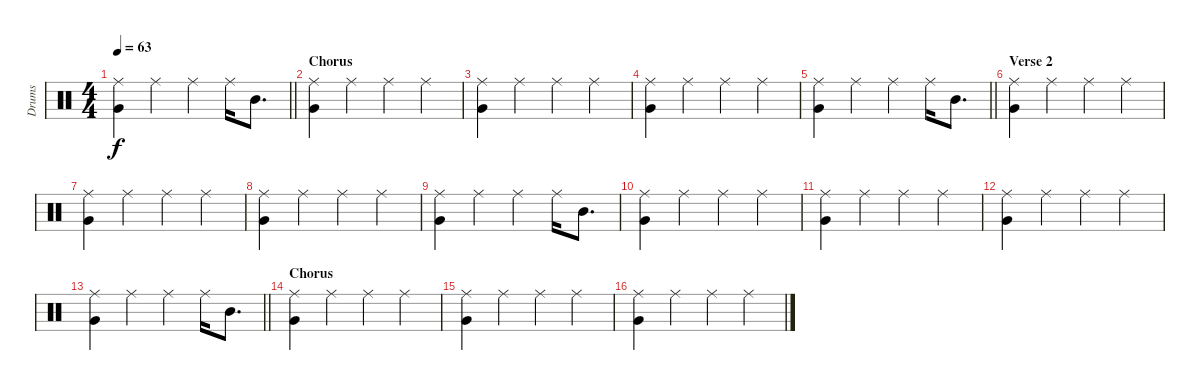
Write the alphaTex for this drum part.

\track ("Drums" "Drums") {instrument percussion}
\staff {score}
\articulation defaults
\ts (4 4)
\tempo 63
\clef neutral
\barLineRight lightlight
\ks c
("Ride (middle)" "Very Low Tom (hit)").4{dy f} "Ride (middle)".4 "Ride (middle)".4 "Ride (middle)".16 "Mid Tom (hit)".8{d} |
\section ("" "Chorus")
("Ride (middle)" "Very Low Tom (hit)").4 "Ride (middle)".4 "Ride (middle)".4 "Ride (middle)".4 |
("Ride (middle)" "Very Low Tom (hit)").4 "Ride (middle)".4 "Ride (middle)".4 "Ride (middle)".4 |
("Ride (middle)" "Very Low Tom (hit)").4 "Ride (middle)".4 "Ride (middle)".4 "Ride (middle)".4 |
\barLineRight lightlight
("Ride (middle)" "Very Low Tom (hit)").4 "Ride (middle)".4 "Ride (middle)".4 "Ride (middle)".16 "Mid Tom (hit)".8{d} |
\section ("" "Verse 2")
("Ride (middle)" "Very Low Tom (hit)").4 "Ride (middle)".4 "Ride (middle)".4 "Ride (middle)".4 |
("Ride (middle)" "Very Low Tom (hit)").4 "Ride (middle)".4 "Ride (middle)".4 "Ride (middle)".4 |
("Ride (middle)" "Very Low Tom (hit)").4 "Ride (middle)".4 "Ride (middle)".4 "Ride (middle)".4 |
("Ride (middle)" "Very Low Tom (hit)").4 "Ride (middle)".4 "Ride (middle)".4 "Ride (middle)".16 "Mid Tom (hit)".8{d} |
("Ride (middle)" "Very Low Tom (hit)").4 "Ride (middle)".4 "Ride (middle)".4 "Ride (middle)".4 |
("Ride (middle)" "Very Low Tom (hit)").4 "Ride (middle)".4 "Ride (middle)".4 "Ride (middle)".4 |
("Ride (middle)" "Very Low Tom (hit)").4 "Ride (middle)".4 "Ride (middle)".4 "Ride (middle)".4 |
\barLineRight lightlight
("Ride (middle)" "Very Low Tom (hit)").4 "Ride (middle)".4 "Ride (middle)".4 "Ride (middle)".16 "Mid Tom (hit)".8{d} |
\section ("" "Chorus")
("Ride (middle)" "Very Low Tom (hit)").4 "Ride (middle)".4 "Ride (middle)".4 "Ride (middle)".4 |
("Ride (middle)" "Very Low Tom (hit)").4 "Ride (middle)".4 "Ride (middle)".4 "Ride (middle)".4 |
("Ride (middle)" "Very Low Tom (hit)").4 "Ride (middle)".4 "Ride (middle)".4 "Ride (middle)".4
